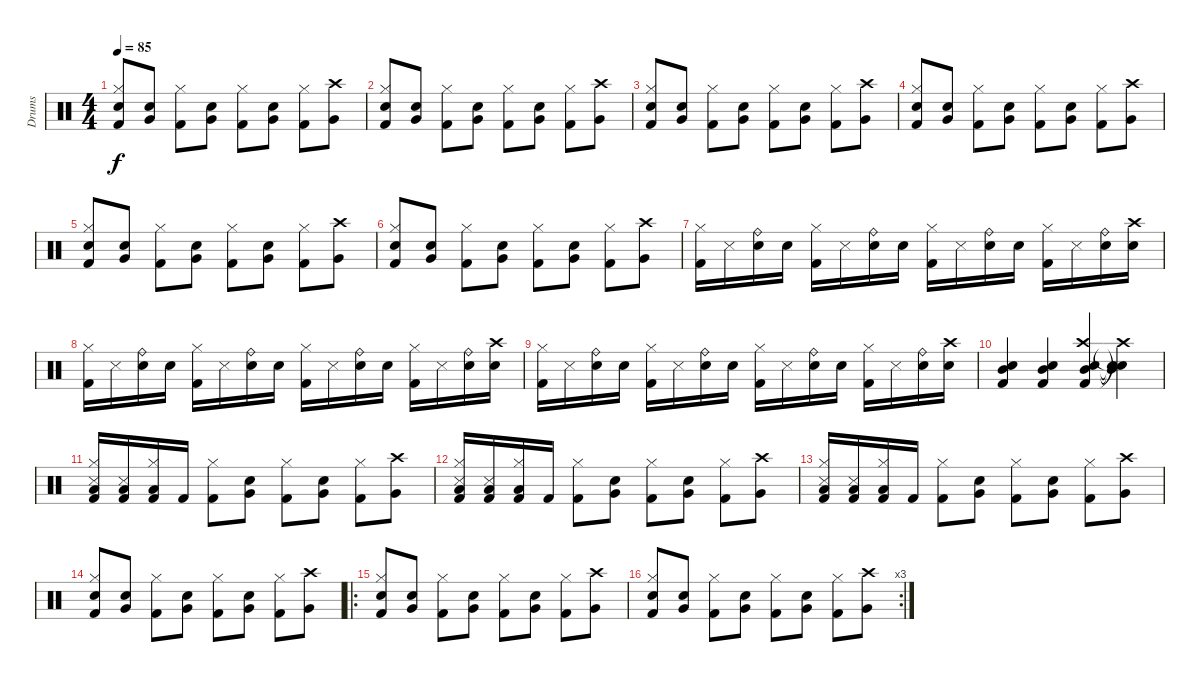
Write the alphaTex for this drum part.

\track ("Drums" "Drums") {instrument percussion}
\staff {score}
\articulation defaults
\ts (4 4)
\tempo 85
\clef neutral
\ks c
("Kick (hit) 2" "Hi-Hat (closed)" "Snare (hit) 2").8{dy f} ("Very Low Tom (hit)" "Snare (hit) 2").8 ("Kick (hit) 2" "Hi-Hat (closed)").8 ("Very Low Tom (hit)" "Snare (hit) 2").8 ("Kick (hit) 2" "Hi-Hat (closed)").8 ("Very Low Tom (hit)" "Snare (hit) 2").8 ("Kick (hit) 2" "Hi-Hat (closed)").8 ("Very Low Tom (hit)" "Crash high (hit)").8 |
("Kick (hit) 2" "Hi-Hat (closed)" "Snare (hit) 2").8 ("Very Low Tom (hit)" "Snare (hit) 2").8 ("Kick (hit) 2" "Hi-Hat (closed)").8 ("Very Low Tom (hit)" "Snare (hit) 2").8 ("Kick (hit) 2" "Hi-Hat (closed)").8 ("Very Low Tom (hit)" "Snare (hit) 2").8 ("Kick (hit) 2" "Hi-Hat (closed)").8 ("Very Low Tom (hit)" "Crash high (hit)").8 |
("Kick (hit) 2" "Hi-Hat (closed)" "Snare (hit) 2").8 ("Very Low Tom (hit)" "Snare (hit) 2").8 ("Kick (hit) 2" "Hi-Hat (closed)").8 ("Very Low Tom (hit)" "Snare (hit) 2").8 ("Kick (hit) 2" "Hi-Hat (closed)").8 ("Very Low Tom (hit)" "Snare (hit) 2").8 ("Kick (hit) 2" "Hi-Hat (closed)").8 ("Very Low Tom (hit)" "Crash high (hit)").8 |
("Kick (hit) 2" "Hi-Hat (closed)" "Snare (hit) 2").8 ("Very Low Tom (hit)" "Snare (hit) 2").8 ("Kick (hit) 2" "Hi-Hat (closed)").8 ("Very Low Tom (hit)" "Snare (hit) 2").8 ("Kick (hit) 2" "Hi-Hat (closed)").8 ("Very Low Tom (hit)" "Snare (hit) 2").8 ("Kick (hit) 2" "Hi-Hat (closed)").8 ("Very Low Tom (hit)" "Crash high (hit)").8 |
("Kick (hit) 2" "Hi-Hat (closed)" "Snare (hit) 2").8 ("Very Low Tom (hit)" "Snare (hit) 2").8 ("Kick (hit) 2" "Hi-Hat (closed)").8 ("Very Low Tom (hit)" "Snare (hit) 2").8 ("Kick (hit) 2" "Hi-Hat (closed)").8 ("Very Low Tom (hit)" "Snare (hit) 2").8 ("Kick (hit) 2" "Hi-Hat (closed)").8 ("Very Low Tom (hit)" "Crash high (hit)").8 |
("Kick (hit) 2" "Hi-Hat (closed)" "Snare (hit) 2").8 ("Very Low Tom (hit)" "Snare (hit) 2").8 ("Kick (hit) 2" "Hi-Hat (closed)").8 ("Very Low Tom (hit)" "Snare (hit) 2").8 ("Kick (hit) 2" "Hi-Hat (closed)").8 ("Very Low Tom (hit)" "Snare (hit) 2").8 ("Kick (hit) 2" "Hi-Hat (closed)").8 ("Very Low Tom (hit)" "Crash high (hit)").8 |
("Kick (hit) 2" "Hi-Hat (closed)").16 "Snare (side stick) 3".16 ("Snare (hit) 2" "Ride (bell)").16 "Electric Snare (hit)".16 ("Kick (hit) 2" "Hi-Hat (closed)").16 "Snare (side stick) 3".16 ("Snare (hit) 2" "Ride (bell)").16 "Electric Snare (hit)".16 ("Kick (hit) 2" "Hi-Hat (closed)").16 "Snare (side stick) 3".16 ("Snare (hit) 2" "Ride (bell)").16 "Electric Snare (hit)".16 ("Kick (hit) 2" "Hi-Hat (closed)").16 "Snare (side stick) 3".16 ("Snare (hit) 2" "Ride (bell)").16 ("Electric Snare (hit)" "Crash high (hit)").16 |
("Kick (hit) 2" "Hi-Hat (closed)").16 "Snare (side stick) 3".16 ("Snare (hit) 2" "Ride (bell)").16 "Electric Snare (hit)".16 ("Kick (hit) 2" "Hi-Hat (closed)").16 "Snare (side stick) 3".16 ("Snare (hit) 2" "Ride (bell)").16 "Electric Snare (hit)".16 ("Kick (hit) 2" "Hi-Hat (closed)").16 "Snare (side stick) 3".16 ("Snare (hit) 2" "Ride (bell)").16 "Electric Snare (hit)".16 ("Kick (hit) 2" "Hi-Hat (closed)").16 "Snare (side stick) 3".16 ("Snare (hit) 2" "Ride (bell)").16 ("Electric Snare (hit)" "Crash high (hit)").16 |
("Kick (hit) 2" "Hi-Hat (closed)").16 "Snare (side stick) 3".16 ("Snare (hit) 2" "Ride (bell)").16 "Electric Snare (hit)".16 ("Kick (hit) 2" "Hi-Hat (closed)").16 "Snare (side stick) 3".16 ("Snare (hit) 2" "Ride (bell)").16 "Electric Snare (hit)".16 ("Kick (hit) 2" "Hi-Hat (closed)").16 "Snare (side stick) 3".16 ("Snare (hit) 2" "Ride (bell)").16 "Electric Snare (hit)".16 ("Kick (hit) 2" "Hi-Hat (closed)").16 "Snare (side stick) 3".16 ("Snare (hit) 2" "Ride (bell)").16 ("Electric Snare (hit)" "Crash high (hit)").16 |
("Kick (hit) 2" "Mid Tom (hit)" "Snare (hit) 2").4 ("Kick (hit) 2" "Mid Tom (hit)" "Snare (hit) 2").4 ("Kick (hit) 2" "Mid Tom (hit)" "Snare (hit) 2" "Crash high (hit)").4 ("Crash high (hit)"{t} "Mid Tom (hit)"{t} "Snare (hit)"{t} "Snare (hit)"{t}).4 |
("Kick (hit) 2" "Hi-Hat (closed)" "Low Floor Tom (hit)" "Snare (side stick) 3").16 ("Kick (hit) 2" "Low Floor Tom (hit)" "Snare (side stick) 3").16 ("Kick (hit) 2" "Hi-Hat (closed)" "Low Floor Tom (hit)").16 "Kick (hit) 2".16 ("Kick (hit) 2" "Hi-Hat (closed)").8 ("Very Low Tom (hit)" "Snare (hit) 2").8 ("Kick (hit) 2" "Hi-Hat (closed)").8 ("Very Low Tom (hit)" "Snare (hit) 2").8 ("Kick (hit) 2" "Hi-Hat (closed)").8 ("Very Low Tom (hit)" "Crash high (hit)").8 |
("Kick (hit) 2" "Hi-Hat (closed)" "Low Floor Tom (hit)" "Snare (side stick) 3").16 ("Kick (hit) 2" "Low Floor Tom (hit)" "Snare (side stick) 3").16 ("Kick (hit) 2" "Hi-Hat (closed)" "Low Floor Tom (hit)").16 "Kick (hit) 2".16 ("Kick (hit) 2" "Hi-Hat (closed)").8 ("Very Low Tom (hit)" "Snare (hit) 2").8 ("Kick (hit) 2" "Hi-Hat (closed)").8 ("Very Low Tom (hit)" "Snare (hit) 2").8 ("Kick (hit) 2" "Hi-Hat (closed)").8 ("Very Low Tom (hit)" "Crash high (hit)").8 |
("Kick (hit) 2" "Hi-Hat (closed)" "Low Floor Tom (hit)" "Snare (side stick) 3").16 ("Kick (hit) 2" "Low Floor Tom (hit)" "Snare (side stick) 3").16 ("Kick (hit) 2" "Hi-Hat (closed)" "Low Floor Tom (hit)").16 "Kick (hit) 2".16 ("Kick (hit) 2" "Hi-Hat (closed)").8 ("Very Low Tom (hit)" "Snare (hit) 2").8 ("Kick (hit) 2" "Hi-Hat (closed)").8 ("Very Low Tom (hit)" "Snare (hit) 2").8 ("Kick (hit) 2" "Hi-Hat (closed)").8 ("Very Low Tom (hit)" "Crash high (hit)").8 |
("Kick (hit) 2" "Hi-Hat (closed)" "Snare (hit) 2").8 ("Very Low Tom (hit)" "Snare (hit) 2").8 ("Kick (hit) 2" "Hi-Hat (closed)").8 ("Very Low Tom (hit)" "Snare (hit) 2").8 ("Kick (hit) 2" "Hi-Hat (closed)").8 ("Very Low Tom (hit)" "Snare (hit) 2").8 ("Kick (hit) 2" "Hi-Hat (closed)").8 ("Very Low Tom (hit)" "Crash high (hit)").8 |
\ro
("Kick (hit) 2" "Hi-Hat (closed)" "Snare (hit) 2").8 ("Very Low Tom (hit)" "Snare (hit) 2").8 ("Kick (hit) 2" "Hi-Hat (closed)").8 ("Very Low Tom (hit)" "Snare (hit) 2").8 ("Kick (hit) 2" "Hi-Hat (closed)").8 ("Very Low Tom (hit)" "Snare (hit) 2").8 ("Kick (hit) 2" "Hi-Hat (closed)").8 ("Very Low Tom (hit)" "Crash high (hit)").8 |
\rc 3
("Kick (hit) 2" "Hi-Hat (closed)" "Snare (hit) 2").8 ("Very Low Tom (hit)" "Snare (hit) 2").8 ("Kick (hit) 2" "Hi-Hat (closed)").8 ("Very Low Tom (hit)" "Snare (hit) 2").8 ("Kick (hit) 2" "Hi-Hat (closed)").8 ("Very Low Tom (hit)" "Snare (hit) 2").8 ("Kick (hit) 2" "Hi-Hat (closed)").8 ("Very Low Tom (hit)" "Crash high (hit)").8
